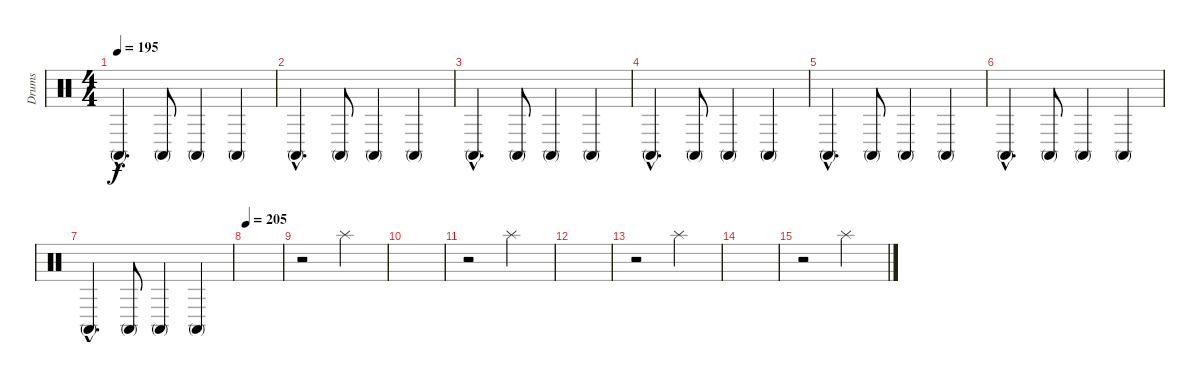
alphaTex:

\track ("Drums" "Drums") {instrument percussion}
\staff {score}
\articulation defaults
\ts (4 4)
\tempo 195
\clef neutral
\ks c "Conga high (mute)"{hac}.4{d dy f} "Conga high (mute)".8 "Conga high (mute)".4 "Conga high (mute)".4
|
"Conga high (mute)"{hac}.4{d} "Conga high (mute)".8 "Conga high (mute)".4 "Conga high (mute)".4 |
"Conga high (mute)"{hac}.4{d} "Conga high (mute)".8 "Conga high (mute)".4 "Conga high (mute)".4 |
"Conga high (mute)"{hac}.4{d} "Conga high (mute)".8 "Conga high (mute)".4 "Conga high (mute)".4 |
"Conga high (mute)"{hac}.4{d} "Conga high (mute)".8 "Conga high (mute)".4 "Conga high (mute)".4 |
"Conga high (mute)"{hac}.4{d} "Conga high (mute)".8 "Conga high (mute)".4 "Conga high (mute)".4 |
"Conga high (mute)"{hac}.4{d} "Conga high (mute)".8 "Conga high (mute)".4 "Conga high (mute)".4 |
\tempo 205
|
r.2 "Splash (hit)".2 |
|
r.2 "Splash (hit)".2 |
|
r.2 "Splash (hit)".2 |
|
r.2 "Splash (hit)".2
